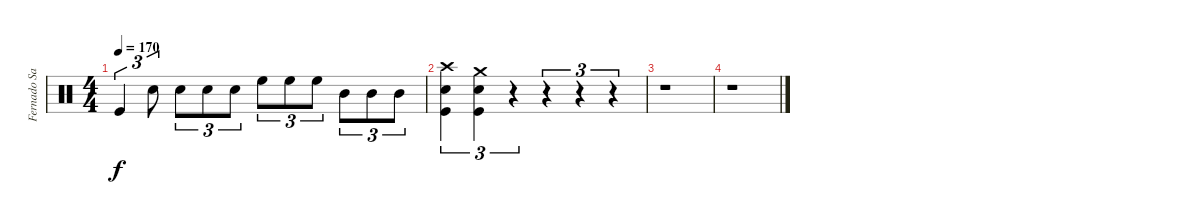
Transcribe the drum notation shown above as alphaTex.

\track ("Fernado Sanchez" "Fernado Sa") {instrument percussion}
\staff {score}
\articulation defaults
\ts (4 4)
\tempo 170
\clef neutral
\ks c "Kick (hit)".4{tu (3 2) dy f} "Electric Snare (hit)".8{tu (3 2)} "Electric Snare (hit)".8{tu (3 2)} "Electric Snare (hit)".8{tu (3 2)} "Electric Snare (hit)".8{tu (3 2)} "High Floor Tom (hit)".8{tu (3 2)} "High Floor Tom (hit)".8{tu (3 2)} "High Floor Tom (hit)".8{tu (3 2)} "Mid Tom (hit)".8{tu (3 2)} "Mid Tom (hit)".8{tu (3 2)} "Mid Tom (hit)".8{tu (3 2)}
|
("Crash high (hit)" "Electric Snare (hit)" "Kick (hit)").4{tu (3 2)} ("Crash medium (hit)" "Electric Snare (hit)" "Kick (hit)").4{tu (3 2)} r.4{tu (3 2)} r.4{tu (3 2)} r.4{tu (3 2)} r.4{tu (3 2)} |
r.1 |
r.1
